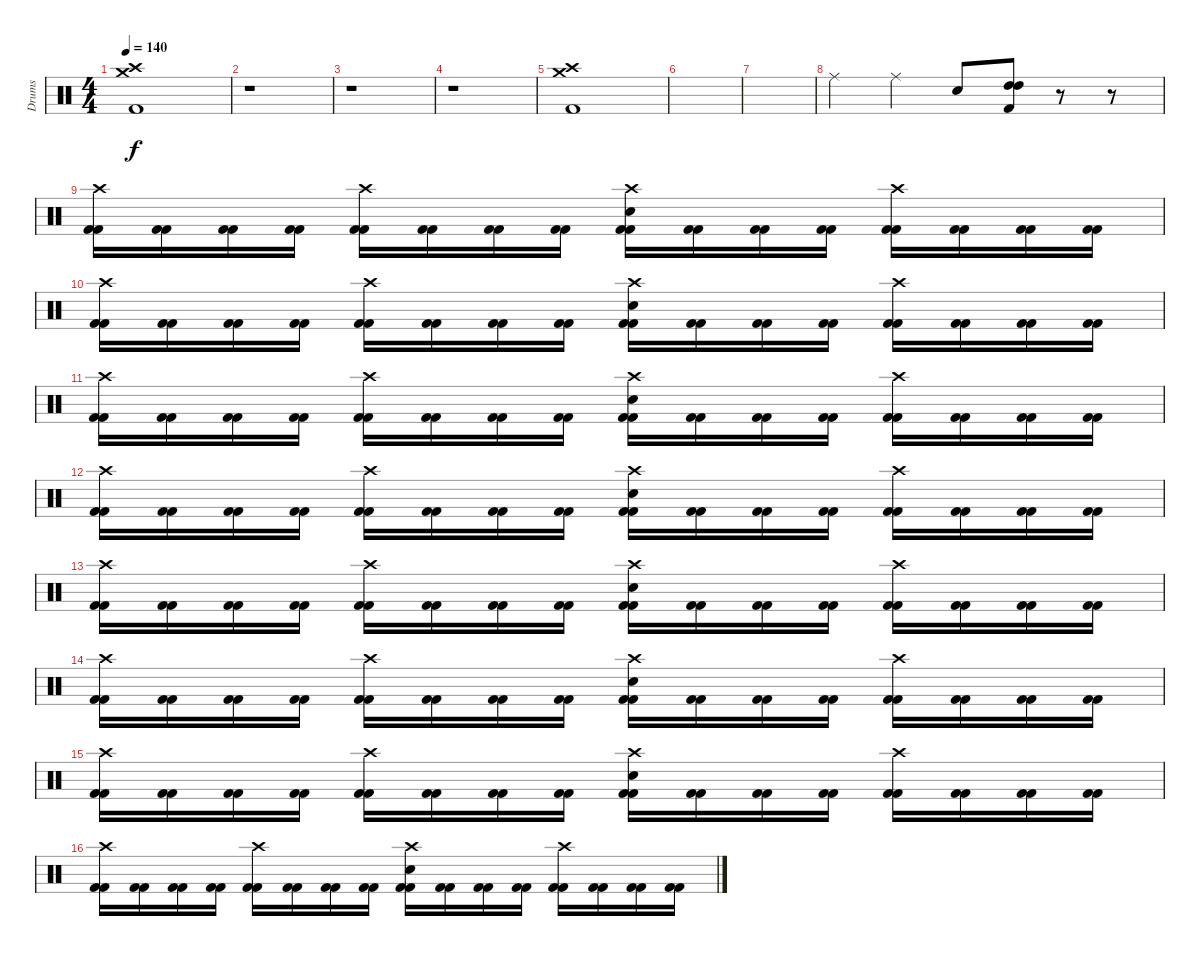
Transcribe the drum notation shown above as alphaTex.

\track ("Drums" "Drums") {instrument percussion}
\staff {score}
\articulation defaults
\ts (4 4)
\tempo 140
\clef neutral
\ks c
("Crash high (hit)" "Crash medium (hit)" "Kick (hit) 2").1{dy f} |
r.1 |
r.1 |
r.1 |
("Crash high (hit)" "Crash medium (hit)" "Kick (hit) 2").1 |
|
|
"Ride (middle)".4 "Ride (middle)".4 "Electric Snare (hit)".8 ("High Tom (hit)" "High Tom (hit)" "Kick (hit) 2").8 r.8 r.8 |
("Kick (hit) 2" "Crash high (hit)" "Kick (hit) 2").16 ("Kick (hit) 2" "Kick (hit) 2").16 ("Kick (hit) 2" "Kick (hit) 2").16 ("Kick (hit) 2" "Kick (hit) 2").16 ("Kick (hit) 2" "Crash high (hit)" "Kick (hit) 2").16 ("Kick (hit) 2" "Kick (hit) 2").16 ("Kick (hit) 2" "Kick (hit) 2").16 ("Kick (hit) 2" "Kick (hit) 2").16 ("Kick (hit) 2" "Crash high (hit)" "Electric Snare (hit)" "Kick (hit) 2").16 ("Kick (hit) 2" "Kick (hit) 2").16 ("Kick (hit) 2" "Kick (hit) 2").16 ("Kick (hit) 2" "Kick (hit) 2").16 ("Kick (hit) 2" "Crash high (hit)" "Kick (hit) 2").16 ("Kick (hit) 2" "Kick (hit) 2").16 ("Kick (hit) 2" "Kick (hit) 2").16 ("Kick (hit) 2" "Kick (hit) 2").16 |
("Kick (hit) 2" "Crash high (hit)" "Kick (hit) 2").16 ("Kick (hit) 2" "Kick (hit) 2").16 ("Kick (hit) 2" "Kick (hit) 2").16 ("Kick (hit) 2" "Kick (hit) 2").16 ("Kick (hit) 2" "Crash high (hit)" "Kick (hit) 2").16 ("Kick (hit) 2" "Kick (hit) 2").16 ("Kick (hit) 2" "Kick (hit) 2").16 ("Kick (hit) 2" "Kick (hit) 2").16 ("Kick (hit) 2" "Crash high (hit)" "Electric Snare (hit)" "Kick (hit) 2").16 ("Kick (hit) 2" "Kick (hit) 2").16 ("Kick (hit) 2" "Kick (hit) 2").16 ("Kick (hit) 2" "Kick (hit) 2").16 ("Kick (hit) 2" "Crash high (hit)" "Kick (hit) 2").16 ("Kick (hit) 2" "Kick (hit) 2").16 ("Kick (hit) 2" "Kick (hit) 2").16 ("Kick (hit) 2" "Kick (hit) 2").16 |
("Kick (hit) 2" "Crash high (hit)" "Kick (hit) 2").16 ("Kick (hit) 2" "Kick (hit) 2").16 ("Kick (hit) 2" "Kick (hit) 2").16 ("Kick (hit) 2" "Kick (hit) 2").16 ("Kick (hit) 2" "Crash high (hit)" "Kick (hit) 2").16 ("Kick (hit) 2" "Kick (hit) 2").16 ("Kick (hit) 2" "Kick (hit) 2").16 ("Kick (hit) 2" "Kick (hit) 2").16 ("Kick (hit) 2" "Crash high (hit)" "Electric Snare (hit)" "Kick (hit) 2").16 ("Kick (hit) 2" "Kick (hit) 2").16 ("Kick (hit) 2" "Kick (hit) 2").16 ("Kick (hit) 2" "Kick (hit) 2").16 ("Kick (hit) 2" "Crash high (hit)" "Kick (hit) 2").16 ("Kick (hit) 2" "Kick (hit) 2").16 ("Kick (hit) 2" "Kick (hit) 2").16 ("Kick (hit) 2" "Kick (hit) 2").16 |
("Kick (hit) 2" "Crash high (hit)" "Kick (hit) 2").16 ("Kick (hit) 2" "Kick (hit) 2").16 ("Kick (hit) 2" "Kick (hit) 2").16 ("Kick (hit) 2" "Kick (hit) 2").16 ("Kick (hit) 2" "Crash high (hit)" "Kick (hit) 2").16 ("Kick (hit) 2" "Kick (hit) 2").16 ("Kick (hit) 2" "Kick (hit) 2").16 ("Kick (hit) 2" "Kick (hit) 2").16 ("Kick (hit) 2" "Crash high (hit)" "Electric Snare (hit)" "Kick (hit) 2").16 ("Kick (hit) 2" "Kick (hit) 2").16 ("Kick (hit) 2" "Kick (hit) 2").16 ("Kick (hit) 2" "Kick (hit) 2").16 ("Kick (hit) 2" "Crash high (hit)" "Kick (hit) 2").16 ("Kick (hit) 2" "Kick (hit) 2").16 ("Kick (hit) 2" "Kick (hit) 2").16 ("Kick (hit) 2" "Kick (hit) 2").16 |
("Kick (hit) 2" "Crash high (hit)" "Kick (hit) 2").16 ("Kick (hit) 2" "Kick (hit) 2").16 ("Kick (hit) 2" "Kick (hit) 2").16 ("Kick (hit) 2" "Kick (hit) 2").16 ("Kick (hit) 2" "Crash high (hit)" "Kick (hit) 2").16 ("Kick (hit) 2" "Kick (hit) 2").16 ("Kick (hit) 2" "Kick (hit) 2").16 ("Kick (hit) 2" "Kick (hit) 2").16 ("Kick (hit) 2" "Crash high (hit)" "Electric Snare (hit)" "Kick (hit) 2").16 ("Kick (hit) 2" "Kick (hit) 2").16 ("Kick (hit) 2" "Kick (hit) 2").16 ("Kick (hit) 2" "Kick (hit) 2").16 ("Kick (hit) 2" "Crash high (hit)" "Kick (hit) 2").16 ("Kick (hit) 2" "Kick (hit) 2").16 ("Kick (hit) 2" "Kick (hit) 2").16 ("Kick (hit) 2" "Kick (hit) 2").16 |
("Kick (hit) 2" "Crash high (hit)" "Kick (hit) 2").16 ("Kick (hit) 2" "Kick (hit) 2").16 ("Kick (hit) 2" "Kick (hit) 2").16 ("Kick (hit) 2" "Kick (hit) 2").16 ("Kick (hit) 2" "Crash high (hit)" "Kick (hit) 2").16 ("Kick (hit) 2" "Kick (hit) 2").16 ("Kick (hit) 2" "Kick (hit) 2").16 ("Kick (hit) 2" "Kick (hit) 2").16 ("Kick (hit) 2" "Crash high (hit)" "Electric Snare (hit)" "Kick (hit) 2").16 ("Kick (hit) 2" "Kick (hit) 2").16 ("Kick (hit) 2" "Kick (hit) 2").16 ("Kick (hit) 2" "Kick (hit) 2").16 ("Kick (hit) 2" "Crash high (hit)" "Kick (hit) 2").16 ("Kick (hit) 2" "Kick (hit) 2").16 ("Kick (hit) 2" "Kick (hit) 2").16 ("Kick (hit) 2" "Kick (hit) 2").16 |
("Kick (hit) 2" "Crash high (hit)" "Kick (hit) 2").16 ("Kick (hit) 2" "Kick (hit) 2").16 ("Kick (hit) 2" "Kick (hit) 2").16 ("Kick (hit) 2" "Kick (hit) 2").16 ("Kick (hit) 2" "Crash high (hit)" "Kick (hit) 2").16 ("Kick (hit) 2" "Kick (hit) 2").16 ("Kick (hit) 2" "Kick (hit) 2").16 ("Kick (hit) 2" "Kick (hit) 2").16 ("Kick (hit) 2" "Crash high (hit)" "Electric Snare (hit)" "Kick (hit) 2").16 ("Kick (hit) 2" "Kick (hit) 2").16 ("Kick (hit) 2" "Kick (hit) 2").16 ("Kick (hit) 2" "Kick (hit) 2").16 ("Kick (hit) 2" "Crash high (hit)" "Kick (hit) 2").16 ("Kick (hit) 2" "Kick (hit) 2").16 ("Kick (hit) 2" "Kick (hit) 2").16 ("Kick (hit) 2" "Kick (hit) 2").16 |
("Kick (hit) 2" "Crash high (hit)" "Kick (hit) 2").16 ("Kick (hit) 2" "Kick (hit) 2").16 ("Kick (hit) 2" "Kick (hit) 2").16 ("Kick (hit) 2" "Kick (hit) 2").16 ("Kick (hit) 2" "Crash high (hit)" "Kick (hit) 2").16 ("Kick (hit) 2" "Kick (hit) 2").16 ("Kick (hit) 2" "Kick (hit) 2").16 ("Kick (hit) 2" "Kick (hit) 2").16 ("Kick (hit) 2" "Crash high (hit)" "Electric Snare (hit)" "Kick (hit) 2").16 ("Kick (hit) 2" "Kick (hit) 2").16 ("Kick (hit) 2" "Kick (hit) 2").16 ("Kick (hit) 2" "Kick (hit) 2").16 ("Kick (hit) 2" "Crash high (hit)" "Kick (hit) 2").16 ("Kick (hit) 2" "Kick (hit) 2").16 ("Kick (hit) 2" "Kick (hit) 2").16 ("Kick (hit) 2" "Kick (hit) 2").16
